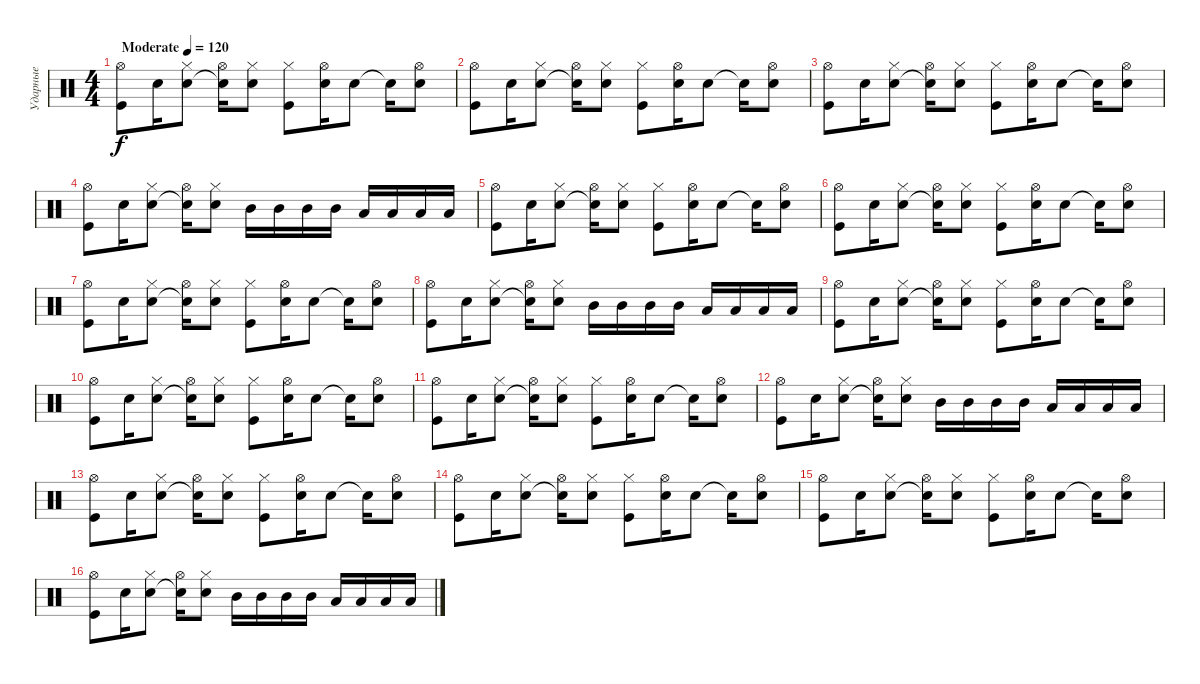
\track ("Ударные" "Ударные") {instrument percussion}
\staff {score}
\articulation defaults
\ts (4 4)
\tempo (120 "Moderate")
\clef neutral
\ks c
("Hi-Hat (open)" "Kick (hit)").8{dy f} "Electric Snare (hit)".16 ("Hi-Hat (closed)" "Electric Snare (hit)").8 ("Hi-Hat (open)" "Snare (hit)"{t}).16 ("Hi-Hat (closed)" "Electric Snare (hit)").8 ("Hi-Hat (closed)" "Kick (hit)").8 ("Hi-Hat (open)" "Electric Snare (hit)").16 "Electric Snare (hit)".8 "Snare (hit)"{t}.16 ("Hi-Hat (open)" "Electric Snare (hit)").8 |
("Hi-Hat (open)" "Kick (hit)").8 "Electric Snare (hit)".16 ("Hi-Hat (closed)" "Electric Snare (hit)").8 ("Hi-Hat (open)" "Snare (hit)"{t}).16 ("Hi-Hat (closed)" "Electric Snare (hit)").8 ("Hi-Hat (closed)" "Kick (hit)").8 ("Hi-Hat (open)" "Electric Snare (hit)").16 "Electric Snare (hit)".8 "Snare (hit)"{t}.16 ("Hi-Hat (open)" "Electric Snare (hit)").8 |
("Hi-Hat (open)" "Kick (hit)").8 "Electric Snare (hit)".16 ("Hi-Hat (closed)" "Electric Snare (hit)").8 ("Hi-Hat (open)" "Snare (hit)"{t}).16 ("Hi-Hat (closed)" "Electric Snare (hit)").8 ("Hi-Hat (closed)" "Kick (hit)").8 ("Hi-Hat (open)" "Electric Snare (hit)").16 "Electric Snare (hit)".8 "Snare (hit)"{t}.16 ("Hi-Hat (open)" "Electric Snare (hit)").8 |
("Hi-Hat (open)" "Kick (hit)").8 "Electric Snare (hit)".16 ("Hi-Hat (closed)" "Electric Snare (hit)").8 ("Hi-Hat (open)" "Snare (hit)"{t}).16 ("Hi-Hat (closed)" "Electric Snare (hit)").8 "Mid Tom (hit)".16 "Mid Tom (hit)".16 "Mid Tom (hit)".16 "Mid Tom (hit)".16 "Low Tom (hit)".16 "Low Tom (hit)".16 "Low Tom (hit)".16 "Low Tom (hit)".16 |
("Hi-Hat (open)" "Kick (hit)").8 "Electric Snare (hit)".16 ("Hi-Hat (closed)" "Electric Snare (hit)").8 ("Hi-Hat (open)" "Snare (hit)"{t}).16 ("Hi-Hat (closed)" "Electric Snare (hit)").8 ("Hi-Hat (closed)" "Kick (hit)").8 ("Hi-Hat (open)" "Electric Snare (hit)").16 "Electric Snare (hit)".8 "Snare (hit)"{t}.16 ("Hi-Hat (open)" "Electric Snare (hit)").8 |
("Hi-Hat (open)" "Kick (hit)").8 "Electric Snare (hit)".16 ("Hi-Hat (closed)" "Electric Snare (hit)").8 ("Hi-Hat (open)" "Snare (hit)"{t}).16 ("Hi-Hat (closed)" "Electric Snare (hit)").8 ("Hi-Hat (closed)" "Kick (hit)").8 ("Hi-Hat (open)" "Electric Snare (hit)").16 "Electric Snare (hit)".8 "Snare (hit)"{t}.16 ("Hi-Hat (open)" "Electric Snare (hit)").8 |
("Hi-Hat (open)" "Kick (hit)").8 "Electric Snare (hit)".16 ("Hi-Hat (closed)" "Electric Snare (hit)").8 ("Hi-Hat (open)" "Snare (hit)"{t}).16 ("Hi-Hat (closed)" "Electric Snare (hit)").8 ("Hi-Hat (closed)" "Kick (hit)").8 ("Hi-Hat (open)" "Electric Snare (hit)").16 "Electric Snare (hit)".8 "Snare (hit)"{t}.16 ("Hi-Hat (open)" "Electric Snare (hit)").8 |
("Hi-Hat (open)" "Kick (hit)").8 "Electric Snare (hit)".16 ("Hi-Hat (closed)" "Electric Snare (hit)").8 ("Hi-Hat (open)" "Snare (hit)"{t}).16 ("Hi-Hat (closed)" "Electric Snare (hit)").8 "Mid Tom (hit)".16 "Mid Tom (hit)".16 "Mid Tom (hit)".16 "Mid Tom (hit)".16 "Low Tom (hit)".16 "Low Tom (hit)".16 "Low Tom (hit)".16 "Low Tom (hit)".16 |
("Hi-Hat (open)" "Kick (hit)").8 "Electric Snare (hit)".16 ("Hi-Hat (closed)" "Electric Snare (hit)").8 ("Hi-Hat (open)" "Snare (hit)"{t}).16 ("Hi-Hat (closed)" "Electric Snare (hit)").8 ("Hi-Hat (closed)" "Kick (hit)").8 ("Hi-Hat (open)" "Electric Snare (hit)").16 "Electric Snare (hit)".8 "Snare (hit)"{t}.16 ("Hi-Hat (open)" "Electric Snare (hit)").8 |
("Hi-Hat (open)" "Kick (hit)").8 "Electric Snare (hit)".16 ("Hi-Hat (closed)" "Electric Snare (hit)").8 ("Hi-Hat (open)" "Snare (hit)"{t}).16 ("Hi-Hat (closed)" "Electric Snare (hit)").8 ("Hi-Hat (closed)" "Kick (hit)").8 ("Hi-Hat (open)" "Electric Snare (hit)").16 "Electric Snare (hit)".8 "Snare (hit)"{t}.16 ("Hi-Hat (open)" "Electric Snare (hit)").8 |
("Hi-Hat (open)" "Kick (hit)").8 "Electric Snare (hit)".16 ("Hi-Hat (closed)" "Electric Snare (hit)").8 ("Hi-Hat (open)" "Snare (hit)"{t}).16 ("Hi-Hat (closed)" "Electric Snare (hit)").8 ("Hi-Hat (closed)" "Kick (hit)").8 ("Hi-Hat (open)" "Electric Snare (hit)").16 "Electric Snare (hit)".8 "Snare (hit)"{t}.16 ("Hi-Hat (open)" "Electric Snare (hit)").8 |
("Hi-Hat (open)" "Kick (hit)").8 "Electric Snare (hit)".16 ("Hi-Hat (closed)" "Electric Snare (hit)").8 ("Hi-Hat (open)" "Snare (hit)"{t}).16 ("Hi-Hat (closed)" "Electric Snare (hit)").8 "Mid Tom (hit)".16 "Mid Tom (hit)".16 "Mid Tom (hit)".16 "Mid Tom (hit)".16 "Low Tom (hit)".16 "Low Tom (hit)".16 "Low Tom (hit)".16 "Low Tom (hit)".16 |
("Hi-Hat (open)" "Kick (hit)").8 "Electric Snare (hit)".16 ("Hi-Hat (closed)" "Electric Snare (hit)").8 ("Hi-Hat (open)" "Snare (hit)"{t}).16 ("Hi-Hat (closed)" "Electric Snare (hit)").8 ("Hi-Hat (closed)" "Kick (hit)").8 ("Hi-Hat (open)" "Electric Snare (hit)").16 "Electric Snare (hit)".8 "Snare (hit)"{t}.16 ("Hi-Hat (open)" "Electric Snare (hit)").8 |
("Hi-Hat (open)" "Kick (hit)").8 "Electric Snare (hit)".16 ("Hi-Hat (closed)" "Electric Snare (hit)").8 ("Hi-Hat (open)" "Snare (hit)"{t}).16 ("Hi-Hat (closed)" "Electric Snare (hit)").8 ("Hi-Hat (closed)" "Kick (hit)").8 ("Hi-Hat (open)" "Electric Snare (hit)").16 "Electric Snare (hit)".8 "Snare (hit)"{t}.16 ("Hi-Hat (open)" "Electric Snare (hit)").8 |
("Hi-Hat (open)" "Kick (hit)").8 "Electric Snare (hit)".16 ("Hi-Hat (closed)" "Electric Snare (hit)").8 ("Hi-Hat (open)" "Snare (hit)"{t}).16 ("Hi-Hat (closed)" "Electric Snare (hit)").8 ("Hi-Hat (closed)" "Kick (hit)").8 ("Hi-Hat (open)" "Electric Snare (hit)").16 "Electric Snare (hit)".8 "Snare (hit)"{t}.16 ("Hi-Hat (open)" "Electric Snare (hit)").8 |
("Hi-Hat (open)" "Kick (hit)").8 "Electric Snare (hit)".16 ("Hi-Hat (closed)" "Electric Snare (hit)").8 ("Hi-Hat (open)" "Snare (hit)"{t}).16 ("Hi-Hat (closed)" "Electric Snare (hit)").8 "Mid Tom (hit)".16 "Mid Tom (hit)".16 "Mid Tom (hit)".16 "Mid Tom (hit)".16 "Low Tom (hit)".16 "Low Tom (hit)".16 "Low Tom (hit)".16 "Low Tom (hit)".16
